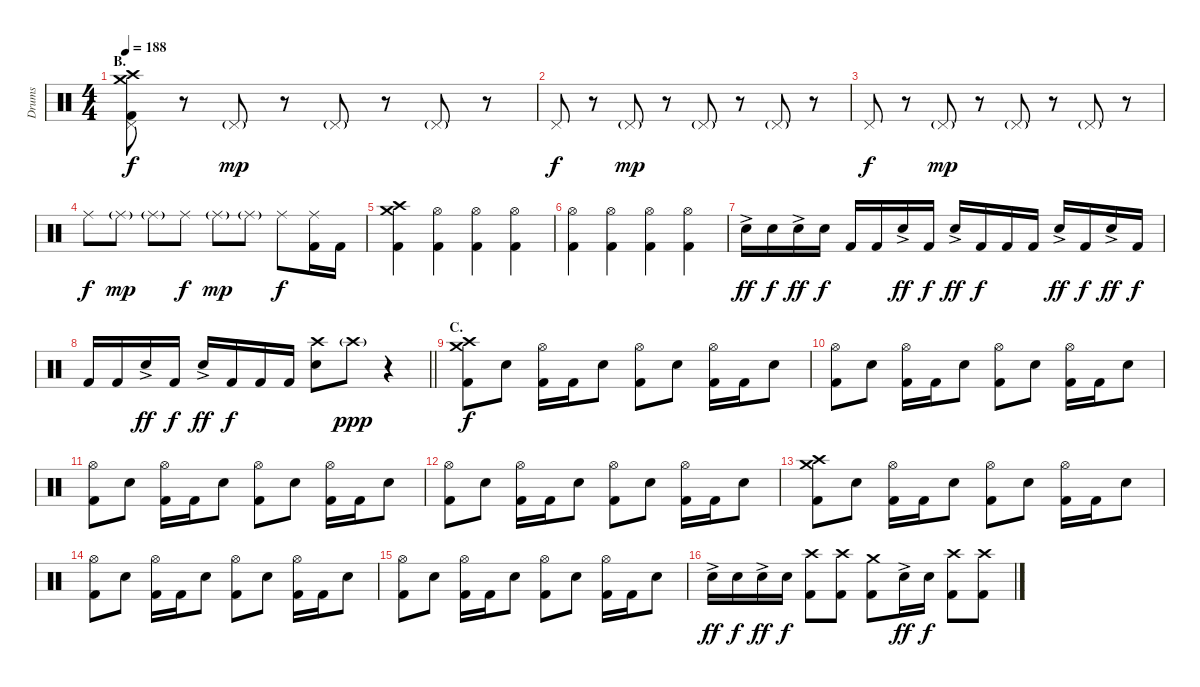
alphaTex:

\track ("Drums" "Drums") {instrument percussion}
\staff {score}
\articulation defaults
\ts (4 4)
\section ("" "B.")
\tempo 188
\clef neutral
\ks c
("Crash medium (hit)" "Crash high (hit)" "Pedal Hi-Hat (hit)" "Kick (hit) 2").8{dy f} r.8 "Pedal Hi-Hat (hit)"{g}.8{dy mp} r.8 "Pedal Hi-Hat (hit)"{g}.8 r.8 "Pedal Hi-Hat (hit)"{g}.8 r.8 |
"Pedal Hi-Hat (hit)".8{dy f} r.8 "Pedal Hi-Hat (hit)"{g}.8{dy mp} r.8 "Pedal Hi-Hat (hit)"{g}.8 r.8 "Pedal Hi-Hat (hit)"{g}.8 r.8 |
"Pedal Hi-Hat (hit)".8{dy f} r.8 "Pedal Hi-Hat (hit)"{g}.8{dy mp} r.8 "Pedal Hi-Hat (hit)"{g}.8 r.8 "Pedal Hi-Hat (hit)"{g}.8 r.8 |
"Ride (middle)".8{dy f} "Ride (middle)"{g}.8{dy mp} "Ride (middle)"{g}.8 "Ride (middle)".8{dy f} "Ride (middle)"{g}.8{dy mp} "Ride (middle)"{g}.8 "Ride (middle)".8{dy f} ("Ride (middle)" "Kick (hit) 2").16 "Kick (hit) 2".16 |
("Crash medium (hit)" "Crash high (hit)" "Kick (hit) 2").4 ("Hi-Hat (open)" "Kick (hit) 2").4 ("Hi-Hat (open)" "Kick (hit) 2").4 ("Hi-Hat (open)" "Kick (hit) 2").4 |
("Hi-Hat (open)" "Kick (hit) 2").4 ("Hi-Hat (open)" "Kick (hit) 2").4 ("Hi-Hat (open)" "Kick (hit) 2").4 ("Hi-Hat (open)" "Kick (hit) 2").4 |
"Electric Snare (hit)"{ac}.16{dy ff} "Electric Snare (hit)".16{dy f} "Electric Snare (hit)"{ac}.16{dy ff} "Electric Snare (hit)".16{dy f} "Kick (hit) 2".16 "Kick (hit) 2".16 "Electric Snare (hit)"{ac}.16{dy ff} "Kick (hit) 2".16{dy f} "Electric Snare (hit)"{ac}.16{dy ff} "Kick (hit) 2".16{dy f} "Kick (hit) 2".16 "Kick (hit) 2".16 "Electric Snare (hit)"{ac}.16{dy ff} "Kick (hit) 2".16{dy f} "Electric Snare (hit)"{ac}.16{dy ff} "Kick (hit) 2".16{dy f} |
\barLineRight lightlight "Kick (hit) 2".16 "Kick (hit) 2".16 "Electric Snare (hit)"{ac}.16{dy ff} "Kick (hit) 2".16{dy f} "Electric Snare (hit)"{ac}.16{dy ff} "Kick (hit) 2".16{dy f} "Kick (hit) 2".16 "Kick (hit) 2".16
("Crash high (hit)" "Electric Snare (hit)").8 "Crash high (hit)"{g}.8{dy ppp} r.4 |
\section ("" "C.")
("Crash medium (hit)" "Crash high (hit)" "Kick (hit) 2").8{dy f} "Electric Snare (hit)".8 ("Hi-Hat (open)" "Kick (hit) 2").16 "Kick (hit) 2".16 "Electric Snare (hit)".8 ("Hi-Hat (open)" "Kick (hit) 2").8 "Electric Snare (hit)".8 ("Hi-Hat (open)" "Kick (hit) 2").16 "Kick (hit) 2".16 "Electric Snare (hit)".8 |
("Hi-Hat (open)" "Kick (hit) 2").8 "Electric Snare (hit)".8 ("Hi-Hat (open)" "Kick (hit) 2").16 "Kick (hit) 2".16 "Electric Snare (hit)".8 ("Hi-Hat (open)" "Kick (hit) 2").8 "Electric Snare (hit)".8 ("Hi-Hat (open)" "Kick (hit) 2").16 "Kick (hit) 2".16 "Electric Snare (hit)".8 |
("Hi-Hat (open)" "Kick (hit) 2").8 "Electric Snare (hit)".8 ("Hi-Hat (open)" "Kick (hit) 2").16 "Kick (hit) 2".16 "Electric Snare (hit)".8 ("Hi-Hat (open)" "Kick (hit) 2").8 "Electric Snare (hit)".8 ("Hi-Hat (open)" "Kick (hit) 2").16 "Kick (hit) 2".16 "Electric Snare (hit)".8 |
("Hi-Hat (open)" "Kick (hit) 2").8 "Electric Snare (hit)".8 ("Hi-Hat (open)" "Kick (hit) 2").16 "Kick (hit) 2".16 "Electric Snare (hit)".8 ("Hi-Hat (open)" "Kick (hit) 2").8 "Electric Snare (hit)".8 ("Hi-Hat (open)" "Kick (hit) 2").16 "Kick (hit) 2".16 "Electric Snare (hit)".8 |
("Crash medium (hit)" "Crash high (hit)" "Kick (hit) 2").8 "Electric Snare (hit)".8 ("Hi-Hat (open)" "Kick (hit) 2").16 "Kick (hit) 2".16 "Electric Snare (hit)".8 ("Hi-Hat (open)" "Kick (hit) 2").8 "Electric Snare (hit)".8 ("Hi-Hat (open)" "Kick (hit) 2").16 "Kick (hit) 2".16 "Electric Snare (hit)".8 |
("Hi-Hat (open)" "Kick (hit) 2").8 "Electric Snare (hit)".8 ("Hi-Hat (open)" "Kick (hit) 2").16 "Kick (hit) 2".16 "Electric Snare (hit)".8 ("Hi-Hat (open)" "Kick (hit) 2").8 "Electric Snare (hit)".8 ("Hi-Hat (open)" "Kick (hit) 2").16 "Kick (hit) 2".16 "Electric Snare (hit)".8 |
("Hi-Hat (open)" "Kick (hit) 2").8 "Electric Snare (hit)".8 ("Hi-Hat (open)" "Kick (hit) 2").16 "Kick (hit) 2".16 "Electric Snare (hit)".8 ("Hi-Hat (open)" "Kick (hit) 2").8 "Electric Snare (hit)".8 ("Hi-Hat (open)" "Kick (hit) 2").16 "Kick (hit) 2".16 "Electric Snare (hit)".8 |
"Electric Snare (hit)"{ac}.16{dy ff} "Electric Snare (hit)".16{dy f} "Electric Snare (hit)"{ac}.16{dy ff} "Electric Snare (hit)".16{dy f} ("Crash high (hit)" "Kick (hit) 2").8 ("Crash high (hit)" "Kick (hit) 2").8 ("Crash medium (hit)" "Kick (hit) 2").8 "Electric Snare (hit)"{ac}.16{dy ff} "Electric Snare (hit)".16{dy f} ("Crash high (hit)" "Kick (hit) 2").8 ("Crash high (hit)" "Kick (hit) 2").8
